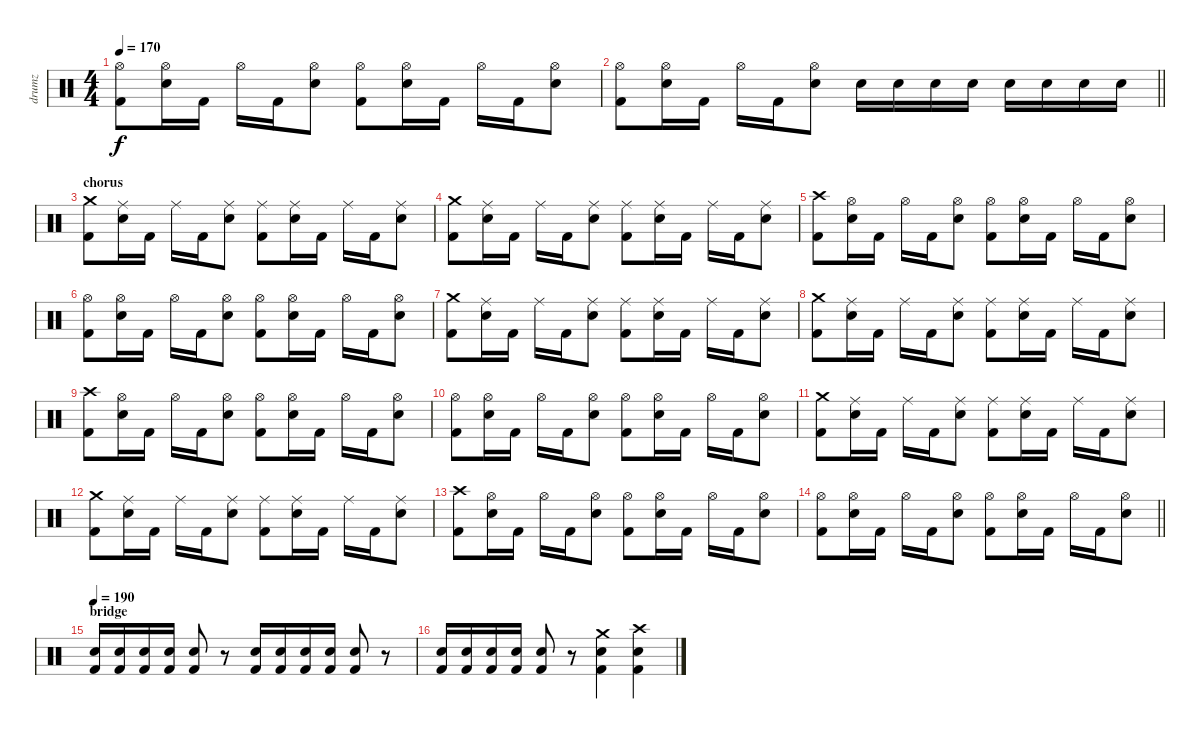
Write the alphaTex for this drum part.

\track ("drumz" "drumz") {instrument percussion}
\staff {score}
\articulation defaults
\ts (4 4)
\tempo 170
\clef neutral
\ks c
("Hi-Hat (open)" "Kick (hit) 2").8{dy f} ("Hi-Hat (open)" "Electric Snare (hit)").16 "Kick (hit) 2".16 "Hi-Hat (open)".16 "Kick (hit) 2".16 ("Hi-Hat (open)" "Electric Snare (hit)").8 ("Hi-Hat (open)" "Kick (hit) 2").8 ("Hi-Hat (open)" "Electric Snare (hit)").16 "Kick (hit) 2".16 "Hi-Hat (open)".16 "Kick (hit) 2".16 ("Hi-Hat (open)" "Electric Snare (hit)").8 |
\barLineRight lightlight
("Hi-Hat (open)" "Kick (hit) 2").8 ("Hi-Hat (open)" "Electric Snare (hit)").16 "Kick (hit) 2".16 "Hi-Hat (open)".16 "Kick (hit) 2".16 ("Hi-Hat (open)" "Electric Snare (hit)").8 "Electric Snare (hit)".16 "Electric Snare (hit)".16 "Electric Snare (hit)".16 "Electric Snare (hit)".16 "Electric Snare (hit)".16 "Electric Snare (hit)".16 "Electric Snare (hit)".16 "Electric Snare (hit)".16 |
\section ("" "chorus")
("Crash medium (hit)" "Kick (hit) 2").8 ("Ride (middle)" "Electric Snare (hit)").16 "Kick (hit) 2".16 "Ride (middle)".16 "Kick (hit) 2".16 ("Ride (middle)" "Electric Snare (hit)").8 ("Ride (middle)" "Kick (hit) 2").8 ("Ride (middle)" "Electric Snare (hit)").16 "Kick (hit) 2".16 "Ride (middle)".16 "Kick (hit) 2".16 ("Ride (middle)" "Electric Snare (hit)").8 |
("Crash medium (hit)" "Kick (hit) 2").8 ("Ride (middle)" "Electric Snare (hit)").16 "Kick (hit) 2".16 "Ride (middle)".16 "Kick (hit) 2".16 ("Ride (middle)" "Electric Snare (hit)").8 ("Ride (middle)" "Kick (hit) 2").8 ("Ride (middle)" "Electric Snare (hit)").16 "Kick (hit) 2".16 "Ride (middle)".16 "Kick (hit) 2".16 ("Ride (middle)" "Electric Snare (hit)").8 |
("Crash high (hit)" "Kick (hit) 2").8 ("Hi-Hat (open)" "Electric Snare (hit)").16 "Kick (hit) 2".16 "Hi-Hat (open)".16 "Kick (hit) 2".16 ("Hi-Hat (open)" "Electric Snare (hit)").8 ("Hi-Hat (open)" "Kick (hit) 2").8 ("Hi-Hat (open)" "Electric Snare (hit)").16 "Kick (hit) 2".16 "Hi-Hat (open)".16 "Kick (hit) 2".16 ("Hi-Hat (open)" "Electric Snare (hit)").8 |
("Hi-Hat (open)" "Kick (hit) 2").8 ("Hi-Hat (open)" "Electric Snare (hit)").16 "Kick (hit) 2".16 "Hi-Hat (open)".16 "Kick (hit) 2".16 ("Hi-Hat (open)" "Electric Snare (hit)").8 ("Hi-Hat (open)" "Kick (hit) 2").8 ("Hi-Hat (open)" "Electric Snare (hit)").16 "Kick (hit) 2".16 "Hi-Hat (open)".16 "Kick (hit) 2".16 ("Hi-Hat (open)" "Electric Snare (hit)").8 |
("Crash medium (hit)" "Kick (hit) 2").8 ("Ride (middle)" "Electric Snare (hit)").16 "Kick (hit) 2".16 "Ride (middle)".16 "Kick (hit) 2".16 ("Ride (middle)" "Electric Snare (hit)").8 ("Ride (middle)" "Kick (hit) 2").8 ("Ride (middle)" "Electric Snare (hit)").16 "Kick (hit) 2".16 "Ride (middle)".16 "Kick (hit) 2".16 ("Ride (middle)" "Electric Snare (hit)").8 |
("Crash medium (hit)" "Kick (hit) 2").8 ("Ride (middle)" "Electric Snare (hit)").16 "Kick (hit) 2".16 "Ride (middle)".16 "Kick (hit) 2".16 ("Ride (middle)" "Electric Snare (hit)").8 ("Ride (middle)" "Kick (hit) 2").8 ("Ride (middle)" "Electric Snare (hit)").16 "Kick (hit) 2".16 "Ride (middle)".16 "Kick (hit) 2".16 ("Ride (middle)" "Electric Snare (hit)").8 |
("Crash high (hit)" "Kick (hit) 2").8 ("Hi-Hat (open)" "Electric Snare (hit)").16 "Kick (hit) 2".16 "Hi-Hat (open)".16 "Kick (hit) 2".16 ("Hi-Hat (open)" "Electric Snare (hit)").8 ("Hi-Hat (open)" "Kick (hit) 2").8 ("Hi-Hat (open)" "Electric Snare (hit)").16 "Kick (hit) 2".16 "Hi-Hat (open)".16 "Kick (hit) 2".16 ("Hi-Hat (open)" "Electric Snare (hit)").8 |
("Hi-Hat (open)" "Kick (hit) 2").8 ("Hi-Hat (open)" "Electric Snare (hit)").16 "Kick (hit) 2".16 "Hi-Hat (open)".16 "Kick (hit) 2".16 ("Hi-Hat (open)" "Electric Snare (hit)").8 ("Hi-Hat (open)" "Kick (hit) 2").8 ("Hi-Hat (open)" "Electric Snare (hit)").16 "Kick (hit) 2".16 "Hi-Hat (open)".16 "Kick (hit) 2".16 ("Hi-Hat (open)" "Electric Snare (hit)").8 |
("Crash medium (hit)" "Kick (hit) 2").8 ("Ride (middle)" "Electric Snare (hit)").16 "Kick (hit) 2".16 "Ride (middle)".16 "Kick (hit) 2".16 ("Ride (middle)" "Electric Snare (hit)").8 ("Ride (middle)" "Kick (hit) 2").8 ("Ride (middle)" "Electric Snare (hit)").16 "Kick (hit) 2".16 "Ride (middle)".16 "Kick (hit) 2".16 ("Ride (middle)" "Electric Snare (hit)").8 |
("Crash medium (hit)" "Kick (hit) 2").8 ("Ride (middle)" "Electric Snare (hit)").16 "Kick (hit) 2".16 "Ride (middle)".16 "Kick (hit) 2".16 ("Ride (middle)" "Electric Snare (hit)").8 ("Ride (middle)" "Kick (hit) 2").8 ("Ride (middle)" "Electric Snare (hit)").16 "Kick (hit) 2".16 "Ride (middle)".16 "Kick (hit) 2".16 ("Ride (middle)" "Electric Snare (hit)").8 |
("Crash high (hit)" "Kick (hit) 2").8 ("Hi-Hat (open)" "Electric Snare (hit)").16 "Kick (hit) 2".16 "Hi-Hat (open)".16 "Kick (hit) 2".16 ("Hi-Hat (open)" "Electric Snare (hit)").8 ("Hi-Hat (open)" "Kick (hit) 2").8 ("Hi-Hat (open)" "Electric Snare (hit)").16 "Kick (hit) 2".16 "Hi-Hat (open)".16 "Kick (hit) 2".16 ("Hi-Hat (open)" "Electric Snare (hit)").8 |
\barLineRight lightlight
("Hi-Hat (open)" "Kick (hit) 2").8 ("Hi-Hat (open)" "Electric Snare (hit)").16 "Kick (hit) 2".16 "Hi-Hat (open)".16 "Kick (hit) 2".16 ("Hi-Hat (open)" "Electric Snare (hit)").8 ("Hi-Hat (open)" "Kick (hit) 2").8 ("Hi-Hat (open)" "Electric Snare (hit)").16 "Kick (hit) 2".16 "Hi-Hat (open)".16 "Kick (hit) 2".16 ("Hi-Hat (open)" "Electric Snare (hit)").8 |
\section ("" "bridge")
\tempo 190
("Electric Snare (hit)" "Kick (hit) 2").16 ("Electric Snare (hit)" "Kick (hit) 2").16 ("Electric Snare (hit)" "Kick (hit) 2").16 ("Electric Snare (hit)" "Kick (hit) 2").16 ("Electric Snare (hit)" "Kick (hit) 2").8 r.8 ("Electric Snare (hit)" "Kick (hit) 2").16 ("Electric Snare (hit)" "Kick (hit) 2").16 ("Electric Snare (hit)" "Kick (hit) 2").16 ("Electric Snare (hit)" "Kick (hit) 2").16 ("Electric Snare (hit)" "Kick (hit) 2").8 r.8 |
("Electric Snare (hit)" "Kick (hit) 2").16 ("Electric Snare (hit)" "Kick (hit) 2").16 ("Electric Snare (hit)" "Kick (hit) 2").16 ("Electric Snare (hit)" "Kick (hit) 2").16 ("Electric Snare (hit)" "Kick (hit) 2").8 r.8 ("Crash medium (hit)" "Electric Snare (hit)" "Kick (hit) 2").4 ("Crash high (hit)" "Electric Snare (hit)" "Kick (hit) 2").4
